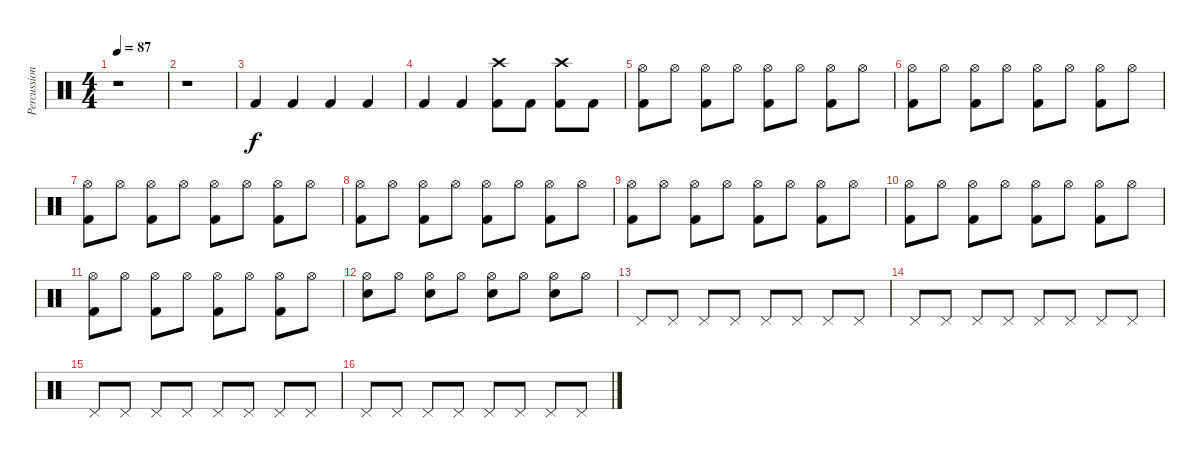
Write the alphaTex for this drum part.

\track ("Percussion" "Percussion") {instrument percussion}
\staff {score}
\articulation defaults
\ts (4 4)
\tempo 87
\clef neutral
\ks c
r.1{dy f} |
r.1 |
"Kick (hit) 2".4 "Kick (hit) 2".4 "Kick (hit) 2".4 "Kick (hit) 2".4 |
"Kick (hit) 2".4 "Kick (hit) 2".4 ("Crash high (hit)" "Kick (hit) 2").8 "Kick (hit) 2".8 ("Crash high (hit)" "Kick (hit) 2").8 "Kick (hit) 2".8 |
("Hi-Hat (open)" "Kick (hit) 2").8 "Hi-Hat (open)".8 ("Hi-Hat (open)" "Kick (hit) 2").8 "Hi-Hat (open)".8 ("Hi-Hat (open)" "Kick (hit) 2").8 "Hi-Hat (open)".8 ("Hi-Hat (open)" "Kick (hit) 2").8 "Hi-Hat (open)".8 |
("Hi-Hat (open)" "Kick (hit) 2").8 "Hi-Hat (open)".8 ("Hi-Hat (open)" "Kick (hit) 2").8 "Hi-Hat (open)".8 ("Hi-Hat (open)" "Kick (hit) 2").8 "Hi-Hat (open)".8 ("Hi-Hat (open)" "Kick (hit) 2").8 "Hi-Hat (open)".8 |
("Hi-Hat (open)" "Kick (hit) 2").8 "Hi-Hat (open)".8 ("Hi-Hat (open)" "Kick (hit) 2").8 "Hi-Hat (open)".8 ("Hi-Hat (open)" "Kick (hit) 2").8 "Hi-Hat (open)".8 ("Hi-Hat (open)" "Kick (hit) 2").8 "Hi-Hat (open)".8 |
("Hi-Hat (open)" "Kick (hit) 2").8 "Hi-Hat (open)".8 ("Hi-Hat (open)" "Kick (hit) 2").8 "Hi-Hat (open)".8 ("Hi-Hat (open)" "Kick (hit) 2").8 "Hi-Hat (open)".8 ("Hi-Hat (open)" "Kick (hit) 2").8 "Hi-Hat (open)".8 |
("Hi-Hat (open)" "Kick (hit) 2").8 "Hi-Hat (open)".8 ("Hi-Hat (open)" "Kick (hit) 2").8 "Hi-Hat (open)".8 ("Hi-Hat (open)" "Kick (hit) 2").8 "Hi-Hat (open)".8 ("Hi-Hat (open)" "Kick (hit) 2").8 "Hi-Hat (open)".8 |
("Hi-Hat (open)" "Kick (hit) 2").8 "Hi-Hat (open)".8 ("Hi-Hat (open)" "Kick (hit) 2").8 "Hi-Hat (open)".8 ("Hi-Hat (open)" "Kick (hit) 2").8 "Hi-Hat (open)".8 ("Hi-Hat (open)" "Kick (hit) 2").8 "Hi-Hat (open)".8 |
("Hi-Hat (open)" "Kick (hit) 2").8 "Hi-Hat (open)".8 ("Hi-Hat (open)" "Kick (hit) 2").8 "Hi-Hat (open)".8 ("Hi-Hat (open)" "Kick (hit) 2").8 "Hi-Hat (open)".8 ("Hi-Hat (open)" "Kick (hit) 2").8 "Hi-Hat (open)".8 |
("Hi-Hat (open)" "Snare (hit) 2").8 "Hi-Hat (open)".8 ("Hi-Hat (open)" "Snare (hit) 2").8 "Hi-Hat (open)".8 ("Hi-Hat (open)" "Snare (hit) 2").8 "Hi-Hat (open)".8 ("Hi-Hat (open)" "Snare (hit) 2").8 "Hi-Hat (open)".8 |
"Pedal Hi-Hat (hit)".8 "Pedal Hi-Hat (hit)".8 "Pedal Hi-Hat (hit)".8 "Pedal Hi-Hat (hit)".8 "Pedal Hi-Hat (hit)".8 "Pedal Hi-Hat (hit)".8 "Pedal Hi-Hat (hit)".8 "Pedal Hi-Hat (hit)".8 |
"Pedal Hi-Hat (hit)".8 "Pedal Hi-Hat (hit)".8 "Pedal Hi-Hat (hit)".8 "Pedal Hi-Hat (hit)".8 "Pedal Hi-Hat (hit)".8 "Pedal Hi-Hat (hit)".8 "Pedal Hi-Hat (hit)".8 "Pedal Hi-Hat (hit)".8 |
"Pedal Hi-Hat (hit)".8 "Pedal Hi-Hat (hit)".8 "Pedal Hi-Hat (hit)".8 "Pedal Hi-Hat (hit)".8 "Pedal Hi-Hat (hit)".8 "Pedal Hi-Hat (hit)".8 "Pedal Hi-Hat (hit)".8 "Pedal Hi-Hat (hit)".8 |
"Pedal Hi-Hat (hit)".8 "Pedal Hi-Hat (hit)".8 "Pedal Hi-Hat (hit)".8 "Pedal Hi-Hat (hit)".8 "Pedal Hi-Hat (hit)".8 "Pedal Hi-Hat (hit)".8 "Pedal Hi-Hat (hit)".8 "Pedal Hi-Hat (hit)".8
